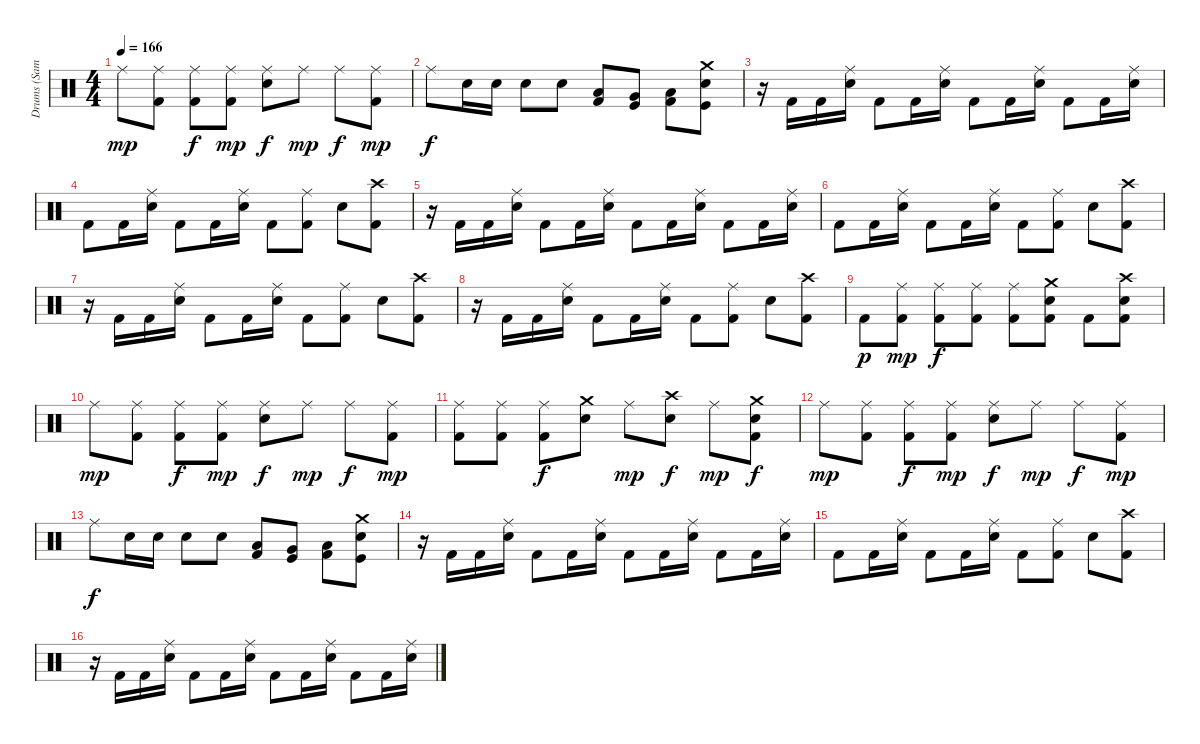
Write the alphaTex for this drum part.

\track ("Drums (Samuelson)" "Drums (Sam") {instrument percussion}
\staff
\articulation defaults
\ts (4 4)
\tempo 166
\clef neutral
\ks c "Ride (middle)".8{dy mp}
("Ride (middle)" "Kick (hit) 2").8 ("Ride (middle)" "Kick (hit) 2").8{dy f} ("Ride (middle)" "Kick (hit) 2").8{dy mp} ("Ride (middle)" "Electric Snare (hit)").8{dy f} "Ride (middle)".8{dy mp} "Ride (middle)".8{dy f} ("Ride (middle)" "Kick (hit) 2").8{dy mp} |
"Ride (middle)".8{dy f} "Electric Snare (hit)".16 "Electric Snare (hit)".16 "Electric Snare (hit)".8 "Electric Snare (hit)".8 ("Low Tom (hit)" "Kick (hit) 2").8 ("Very Low Tom (hit)" "Kick (hit)").8 ("Low Floor Tom (hit)" "Kick (hit) 2").8 ("Crash medium (hit)" "Electric Snare (hit)" "Kick (hit)").8 |
r.16 "Kick (hit) 2".16 "Kick (hit) 2".16 ("Ride (middle)" "Electric Snare (hit)").16 "Kick (hit) 2".8 "Kick (hit) 2".16 ("Ride (middle)" "Electric Snare (hit)").16 "Kick (hit) 2".8 "Kick (hit) 2".16 ("Ride (middle)" "Electric Snare (hit)").16 "Kick (hit) 2".8 "Kick (hit) 2".16 ("Ride (middle)" "Electric Snare (hit)").16 |
"Kick (hit) 2".8 "Kick (hit) 2".16 ("Ride (middle)" "Electric Snare (hit)").16 "Kick (hit) 2".8 "Kick (hit) 2".16 ("Ride (middle)" "Electric Snare (hit)").16 "Kick (hit) 2".8 ("Ride (middle)" "Kick (hit) 2").8 "Electric Snare (hit)".8 ("Crash high (hit)" "Kick (hit) 2").8 |
r.16 "Kick (hit) 2".16 "Kick (hit) 2".16 ("Ride (middle)" "Electric Snare (hit)").16 "Kick (hit) 2".8 "Kick (hit) 2".16 ("Ride (middle)" "Electric Snare (hit)").16 "Kick (hit) 2".8 "Kick (hit) 2".16 ("Ride (middle)" "Electric Snare (hit)").16 "Kick (hit) 2".8 "Kick (hit) 2".16 ("Ride (middle)" "Electric Snare (hit)").16 |
"Kick (hit) 2".8 "Kick (hit) 2".16 ("Ride (middle)" "Electric Snare (hit)").16 "Kick (hit) 2".8 "Kick (hit) 2".16 ("Ride (middle)" "Electric Snare (hit)").16 "Kick (hit) 2".8 ("Ride (middle)" "Kick (hit) 2").8 "Electric Snare (hit)".8 ("Crash high (hit)" "Kick (hit) 2").8 |
r.16 "Kick (hit) 2".16 "Kick (hit) 2".16 ("Ride (middle)" "Electric Snare (hit)").16 "Kick (hit) 2".8 "Kick (hit) 2".16 ("Ride (middle)" "Electric Snare (hit)").16 "Kick (hit) 2".8 ("Ride (middle)" "Kick (hit) 2").8 "Electric Snare (hit)".8 ("Crash high (hit)" "Kick (hit) 2").8 |
r.16 "Kick (hit) 2".16 "Kick (hit) 2".16 ("Ride (middle)" "Electric Snare (hit)").16 "Kick (hit) 2".8 "Kick (hit) 2".16 ("Ride (middle)" "Electric Snare (hit)").16 "Kick (hit) 2".8 ("Ride (middle)" "Kick (hit) 2").8 "Electric Snare (hit)".8 ("Crash high (hit)" "Kick (hit) 2").8 |
"Kick (hit) 2".8{dy p} ("Ride (middle)" "Kick (hit) 2").8{dy mp} ("Ride (middle)" "Kick (hit) 2").8{dy f} ("Ride (middle)" "Kick (hit) 2").8 ("Ride (middle)" "Kick (hit) 2").8 ("Crash medium (hit)" "Electric Snare (hit)" "Kick (hit) 2").8 "Kick (hit) 2".8 ("Crash high (hit)" "Electric Snare (hit)" "Kick (hit) 2").8 |
"Ride (middle)".8{dy mp} ("Ride (middle)" "Kick (hit) 2").8 ("Ride (middle)" "Kick (hit) 2").8{dy f} ("Ride (middle)" "Kick (hit) 2").8{dy mp} ("Ride (middle)" "Electric Snare (hit)").8{dy f} "Ride (middle)".8{dy mp} "Ride (middle)".8{dy f} ("Ride (middle)" "Kick (hit) 2").8{dy mp} |
("Ride (middle)" "Kick (hit) 2").8 ("Ride (middle)" "Kick (hit) 2").8 ("Ride (middle)" "Kick (hit) 2").8{dy f} ("Crash medium (hit)" "Electric Snare (hit)").8 "Ride (middle)".8{dy mp} ("Crash high (hit)" "Electric Snare (hit)").8{dy f} "Ride (middle)".8{dy mp} ("Crash medium (hit)" "Electric Snare (hit)" "Kick (hit) 2").8{dy f} |
"Ride (middle)".8{dy mp} ("Ride (middle)" "Kick (hit) 2").8 ("Ride (middle)" "Kick (hit) 2").8{dy f} ("Ride (middle)" "Kick (hit) 2").8{dy mp} ("Ride (middle)" "Electric Snare (hit)").8{dy f} "Ride (middle)".8{dy mp} "Ride (middle)".8{dy f} ("Ride (middle)" "Kick (hit) 2").8{dy mp} |
"Ride (middle)".8{dy f} "Electric Snare (hit)".16 "Electric Snare (hit)".16 "Electric Snare (hit)".8 "Electric Snare (hit)".8 ("Low Tom (hit)" "Kick (hit) 2").8 ("Very Low Tom (hit)" "Kick (hit)").8 ("Low Floor Tom (hit)" "Kick (hit) 2").8 ("Crash medium (hit)" "Electric Snare (hit)" "Kick (hit)").8 |
r.16 "Kick (hit) 2".16 "Kick (hit) 2".16 ("Ride (middle)" "Electric Snare (hit)").16 "Kick (hit) 2".8 "Kick (hit) 2".16 ("Ride (middle)" "Electric Snare (hit)").16 "Kick (hit) 2".8 "Kick (hit) 2".16 ("Ride (middle)" "Electric Snare (hit)").16 "Kick (hit) 2".8 "Kick (hit) 2".16 ("Ride (middle)" "Electric Snare (hit)").16 |
"Kick (hit) 2".8 "Kick (hit) 2".16 ("Ride (middle)" "Electric Snare (hit)").16 "Kick (hit) 2".8 "Kick (hit) 2".16 ("Ride (middle)" "Electric Snare (hit)").16 "Kick (hit) 2".8 ("Ride (middle)" "Kick (hit) 2").8 "Electric Snare (hit)".8 ("Crash high (hit)" "Kick (hit) 2").8 |
r.16 "Kick (hit) 2".16 "Kick (hit) 2".16 ("Ride (middle)" "Electric Snare (hit)").16 "Kick (hit) 2".8 "Kick (hit) 2".16 ("Ride (middle)" "Electric Snare (hit)").16 "Kick (hit) 2".8 "Kick (hit) 2".16 ("Ride (middle)" "Electric Snare (hit)").16 "Kick (hit) 2".8 "Kick (hit) 2".16 ("Ride (middle)" "Electric Snare (hit)").16
